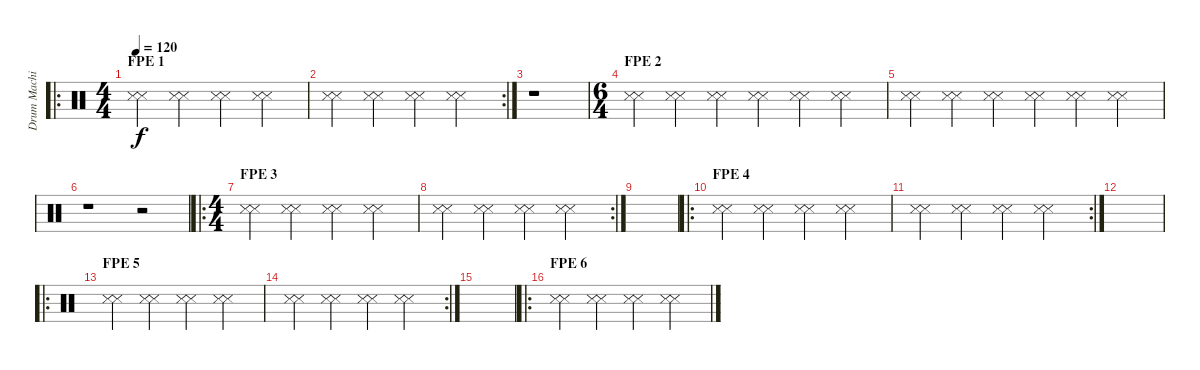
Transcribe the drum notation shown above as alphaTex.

\track ("Drum Machine" "Drum Machi") {instrument percussion}
\staff {score}
\articulation defaults
\ro
\ts (4 4)
\section ("" "FPE 1")
\tempo 120
\clef neutral
\ks c
("Snare (side stick) 3" "Snare (side stick) 3").4{dy f} ("Snare (side stick) 3" "Snare (side stick) 3").4 ("Snare (side stick) 3" "Snare (side stick) 3").4 ("Snare (side stick) 3" "Snare (side stick) 3").4 |
\rc 2
("Snare (side stick) 3" "Snare (side stick) 3").4 ("Snare (side stick) 3" "Snare (side stick) 3").4 ("Snare (side stick) 3" "Snare (side stick) 3").4 ("Snare (side stick) 3" "Snare (side stick) 3").4 |
r.1 |
\ts (6 4)
\section ("" "FPE 2")
("Snare (side stick) 3" "Snare (side stick) 3").4 ("Snare (side stick) 3" "Snare (side stick) 3").4 ("Snare (side stick) 3" "Snare (side stick) 3").4 ("Snare (side stick) 3" "Snare (side stick) 3").4 ("Snare (side stick) 3" "Snare (side stick) 3").4 ("Snare (side stick) 3" "Snare (side stick) 3").4 |
("Snare (side stick) 3" "Snare (side stick) 3").4 ("Snare (side stick) 3" "Snare (side stick) 3").4 ("Snare (side stick) 3" "Snare (side stick) 3").4 ("Snare (side stick) 3" "Snare (side stick) 3").4 ("Snare (side stick) 3" "Snare (side stick) 3").4 ("Snare (side stick) 3" "Snare (side stick) 3").4 |
r.1 r.2 |
\ro
\ts (4 4)
\section ("" "FPE 3")
("Snare (side stick) 3" "Snare (side stick) 3").4 ("Snare (side stick) 3" "Snare (side stick) 3").4 ("Snare (side stick) 3" "Snare (side stick) 3").4 ("Snare (side stick) 3" "Snare (side stick) 3").4 |
\rc 2
("Snare (side stick) 3" "Snare (side stick) 3").4 ("Snare (side stick) 3" "Snare (side stick) 3").4 ("Snare (side stick) 3" "Snare (side stick) 3").4 ("Snare (side stick) 3" "Snare (side stick) 3").4 |
|
\ro
\section ("" "FPE 4")
("Snare (side stick) 3" "Snare (side stick) 3").4 ("Snare (side stick) 3" "Snare (side stick) 3").4 ("Snare (side stick) 3" "Snare (side stick) 3").4 ("Snare (side stick) 3" "Snare (side stick) 3").4 |
\rc 2
("Snare (side stick) 3" "Snare (side stick) 3").4 ("Snare (side stick) 3" "Snare (side stick) 3").4 ("Snare (side stick) 3" "Snare (side stick) 3").4 ("Snare (side stick) 3" "Snare (side stick) 3").4 |
|
\ro
\section ("" "FPE 5")
("Snare (side stick) 3" "Snare (side stick) 3").4 ("Snare (side stick) 3" "Snare (side stick) 3").4 ("Snare (side stick) 3" "Snare (side stick) 3").4 ("Snare (side stick) 3" "Snare (side stick) 3").4 |
\rc 2
("Snare (side stick) 3" "Snare (side stick) 3").4 ("Snare (side stick) 3" "Snare (side stick) 3").4 ("Snare (side stick) 3" "Snare (side stick) 3").4 ("Snare (side stick) 3" "Snare (side stick) 3").4 |
|
\ro
\section ("" "FPE 6")
("Snare (side stick) 3" "Snare (side stick) 3").4 ("Snare (side stick) 3" "Snare (side stick) 3").4 ("Snare (side stick) 3" "Snare (side stick) 3").4 ("Snare (side stick) 3" "Snare (side stick) 3").4
